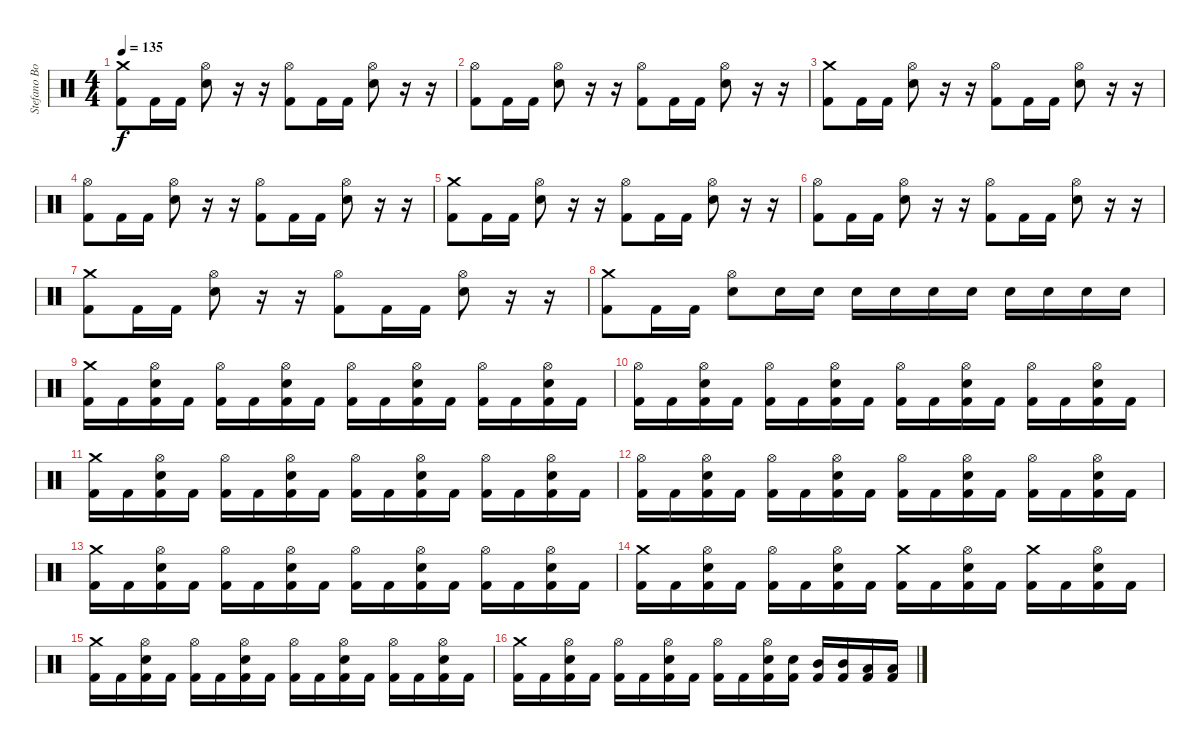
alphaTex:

\track ("Stefano Bonini" "Stefano Bo") {instrument percussion}
\staff {score}
\articulation defaults
\ts (4 4)
\tempo 135
\clef neutral
\ks c
("Crash medium (hit)" "Kick (hit) 2").8{dy f} "Kick (hit) 2".16 "Kick (hit) 2".16 ("Hi-Hat (open)" "Electric Snare (hit)").8 r.16 r.16 ("Hi-Hat (open)" "Kick (hit) 2").8 "Kick (hit) 2".16 "Kick (hit) 2".16 ("Hi-Hat (open)" "Electric Snare (hit)").8 r.16 r.16 |
("Hi-Hat (open)" "Kick (hit) 2").8 "Kick (hit) 2".16 "Kick (hit) 2".16 ("Hi-Hat (open)" "Electric Snare (hit)").8 r.16 r.16 ("Hi-Hat (open)" "Kick (hit) 2").8 "Kick (hit) 2".16 "Kick (hit) 2".16 ("Hi-Hat (open)" "Electric Snare (hit)").8 r.16 r.16 |
("Crash medium (hit)" "Kick (hit) 2").8 "Kick (hit) 2".16 "Kick (hit) 2".16 ("Hi-Hat (open)" "Electric Snare (hit)").8 r.16 r.16 ("Hi-Hat (open)" "Kick (hit) 2").8 "Kick (hit) 2".16 "Kick (hit) 2".16 ("Hi-Hat (open)" "Electric Snare (hit)").8 r.16 r.16 |
("Hi-Hat (open)" "Kick (hit) 2").8 "Kick (hit) 2".16 "Kick (hit) 2".16 ("Hi-Hat (open)" "Electric Snare (hit)").8 r.16 r.16 ("Hi-Hat (open)" "Kick (hit) 2").8 "Kick (hit) 2".16 "Kick (hit) 2".16 ("Hi-Hat (open)" "Electric Snare (hit)").8 r.16 r.16 |
("Crash medium (hit)" "Kick (hit) 2").8 "Kick (hit) 2".16 "Kick (hit) 2".16 ("Hi-Hat (open)" "Electric Snare (hit)").8 r.16 r.16 ("Hi-Hat (open)" "Kick (hit) 2").8 "Kick (hit) 2".16 "Kick (hit) 2".16 ("Hi-Hat (open)" "Electric Snare (hit)").8 r.16 r.16 |
("Hi-Hat (open)" "Kick (hit) 2").8 "Kick (hit) 2".16 "Kick (hit) 2".16 ("Hi-Hat (open)" "Electric Snare (hit)").8 r.16 r.16 ("Hi-Hat (open)" "Kick (hit) 2").8 "Kick (hit) 2".16 "Kick (hit) 2".16 ("Hi-Hat (open)" "Electric Snare (hit)").8 r.16 r.16 |
("Crash medium (hit)" "Kick (hit) 2").8 "Kick (hit) 2".16 "Kick (hit) 2".16 ("Hi-Hat (open)" "Electric Snare (hit)").8 r.16 r.16 ("Hi-Hat (open)" "Kick (hit) 2").8 "Kick (hit) 2".16 "Kick (hit) 2".16 ("Hi-Hat (open)" "Electric Snare (hit)").8 r.16 r.16 |
("Crash medium (hit)" "Kick (hit) 2").8 "Kick (hit) 2".16 "Kick (hit) 2".16 ("Hi-Hat (open)" "Electric Snare (hit)").8 "Electric Snare (hit)".16 "Electric Snare (hit)".16 "Electric Snare (hit)".16 "Electric Snare (hit)".16 "Electric Snare (hit)".16 "Electric Snare (hit)".16 "Electric Snare (hit)".16 "Electric Snare (hit)".16 "Electric Snare (hit)".16 "Electric Snare (hit)".16 |
("Crash medium (hit)" "Kick (hit) 2").16 "Kick (hit) 2".16 ("Hi-Hat (open)" "Electric Snare (hit)" "Kick (hit) 2").16 "Kick (hit) 2".16 ("Hi-Hat (open)" "Kick (hit) 2").16 "Kick (hit) 2".16 ("Hi-Hat (open)" "Electric Snare (hit)" "Kick (hit) 2").16 "Kick (hit) 2".16 ("Hi-Hat (open)" "Kick (hit) 2").16 "Kick (hit) 2".16 ("Hi-Hat (open)" "Electric Snare (hit)" "Kick (hit) 2").16 "Kick (hit) 2".16 ("Hi-Hat (open)" "Kick (hit) 2").16 "Kick (hit) 2".16 ("Hi-Hat (open)" "Electric Snare (hit)" "Kick (hit) 2").16 "Kick (hit) 2".16 |
("Hi-Hat (open)" "Kick (hit) 2").16 "Kick (hit) 2".16 ("Hi-Hat (open)" "Electric Snare (hit)" "Kick (hit) 2").16 "Kick (hit) 2".16 ("Hi-Hat (open)" "Kick (hit) 2").16 "Kick (hit) 2".16 ("Hi-Hat (open)" "Electric Snare (hit)" "Kick (hit) 2").16 "Kick (hit) 2".16 ("Hi-Hat (open)" "Kick (hit) 2").16 "Kick (hit) 2".16 ("Hi-Hat (open)" "Electric Snare (hit)" "Kick (hit) 2").16 "Kick (hit) 2".16 ("Hi-Hat (open)" "Kick (hit) 2").16 "Kick (hit) 2".16 ("Hi-Hat (open)" "Electric Snare (hit)" "Kick (hit) 2").16 "Kick (hit) 2".16 |
("Crash medium (hit)" "Kick (hit) 2").16 "Kick (hit) 2".16 ("Hi-Hat (open)" "Electric Snare (hit)" "Kick (hit) 2").16 "Kick (hit) 2".16 ("Hi-Hat (open)" "Kick (hit) 2").16 "Kick (hit) 2".16 ("Hi-Hat (open)" "Electric Snare (hit)" "Kick (hit) 2").16 "Kick (hit) 2".16 ("Hi-Hat (open)" "Kick (hit) 2").16 "Kick (hit) 2".16 ("Hi-Hat (open)" "Electric Snare (hit)" "Kick (hit) 2").16 "Kick (hit) 2".16 ("Hi-Hat (open)" "Kick (hit) 2").16 "Kick (hit) 2".16 ("Hi-Hat (open)" "Electric Snare (hit)" "Kick (hit) 2").16 "Kick (hit) 2".16 |
("Hi-Hat (open)" "Kick (hit) 2").16 "Kick (hit) 2".16 ("Hi-Hat (open)" "Electric Snare (hit)" "Kick (hit) 2").16 "Kick (hit) 2".16 ("Hi-Hat (open)" "Kick (hit) 2").16 "Kick (hit) 2".16 ("Hi-Hat (open)" "Electric Snare (hit)" "Kick (hit) 2").16 "Kick (hit) 2".16 ("Hi-Hat (open)" "Kick (hit) 2").16 "Kick (hit) 2".16 ("Hi-Hat (open)" "Electric Snare (hit)" "Kick (hit) 2").16 "Kick (hit) 2".16 ("Hi-Hat (open)" "Kick (hit) 2").16 "Kick (hit) 2".16 ("Hi-Hat (open)" "Electric Snare (hit)" "Kick (hit) 2").16 "Kick (hit) 2".16 |
("Crash medium (hit)" "Kick (hit) 2").16 "Kick (hit) 2".16 ("Hi-Hat (open)" "Electric Snare (hit)" "Kick (hit) 2").16 "Kick (hit) 2".16 ("Hi-Hat (open)" "Kick (hit) 2").16 "Kick (hit) 2".16 ("Hi-Hat (open)" "Electric Snare (hit)" "Kick (hit) 2").16 "Kick (hit) 2".16 ("Hi-Hat (open)" "Kick (hit) 2").16 "Kick (hit) 2".16 ("Hi-Hat (open)" "Electric Snare (hit)" "Kick (hit) 2").16 "Kick (hit) 2".16 ("Hi-Hat (open)" "Kick (hit) 2").16 "Kick (hit) 2".16 ("Hi-Hat (open)" "Electric Snare (hit)" "Kick (hit) 2").16 "Kick (hit) 2".16 |
("Crash medium (hit)" "Kick (hit) 2").16 "Kick (hit) 2".16 ("Hi-Hat (open)" "Electric Snare (hit)" "Kick (hit) 2").16 "Kick (hit) 2".16 ("Hi-Hat (open)" "Kick (hit) 2").16 "Kick (hit) 2".16 ("Hi-Hat (open)" "Electric Snare (hit)" "Kick (hit) 2").16 "Kick (hit) 2".16 ("Crash medium (hit)" "Kick (hit) 2").16 "Kick (hit) 2".16 ("Hi-Hat (open)" "Electric Snare (hit)" "Kick (hit) 2").16 "Kick (hit) 2".16 ("Crash medium (hit)" "Kick (hit) 2").16 "Kick (hit) 2".16 ("Hi-Hat (open)" "Electric Snare (hit)" "Kick (hit) 2").16 "Kick (hit) 2".16 |
("Crash medium (hit)" "Kick (hit) 2").16 "Kick (hit) 2".16 ("Hi-Hat (open)" "Electric Snare (hit)" "Kick (hit) 2").16 "Kick (hit) 2".16 ("Hi-Hat (open)" "Kick (hit) 2").16 "Kick (hit) 2".16 ("Hi-Hat (open)" "Electric Snare (hit)" "Kick (hit) 2").16 "Kick (hit) 2".16 ("Hi-Hat (open)" "Kick (hit) 2").16 "Kick (hit) 2".16 ("Hi-Hat (open)" "Electric Snare (hit)" "Kick (hit) 2").16 "Kick (hit) 2".16 ("Hi-Hat (open)" "Kick (hit) 2").16 "Kick (hit) 2".16 ("Hi-Hat (open)" "Electric Snare (hit)" "Kick (hit) 2").16 "Kick (hit) 2".16 |
("Crash medium (hit)" "Kick (hit) 2").16 "Kick (hit) 2".16 ("Hi-Hat (open)" "Electric Snare (hit)" "Kick (hit) 2").16 "Kick (hit) 2".16 ("Hi-Hat (open)" "Kick (hit) 2").16 "Kick (hit) 2".16 ("Hi-Hat (open)" "Electric Snare (hit)" "Kick (hit) 2").16 "Kick (hit) 2".16 ("Hi-Hat (open)" "Kick (hit) 2").16 "Kick (hit) 2".16 ("Hi-Hat (open)" "Electric Snare (hit)" "Kick (hit) 2").16 ("Electric Snare (hit)" "Kick (hit) 2").16 ("Mid Tom (hit)" "Kick (hit) 2").16 ("Mid Tom (hit)" "Kick (hit) 2").16 ("Low Tom (hit)" "Kick (hit) 2").16 ("Low Tom (hit)" "Kick (hit) 2").16
